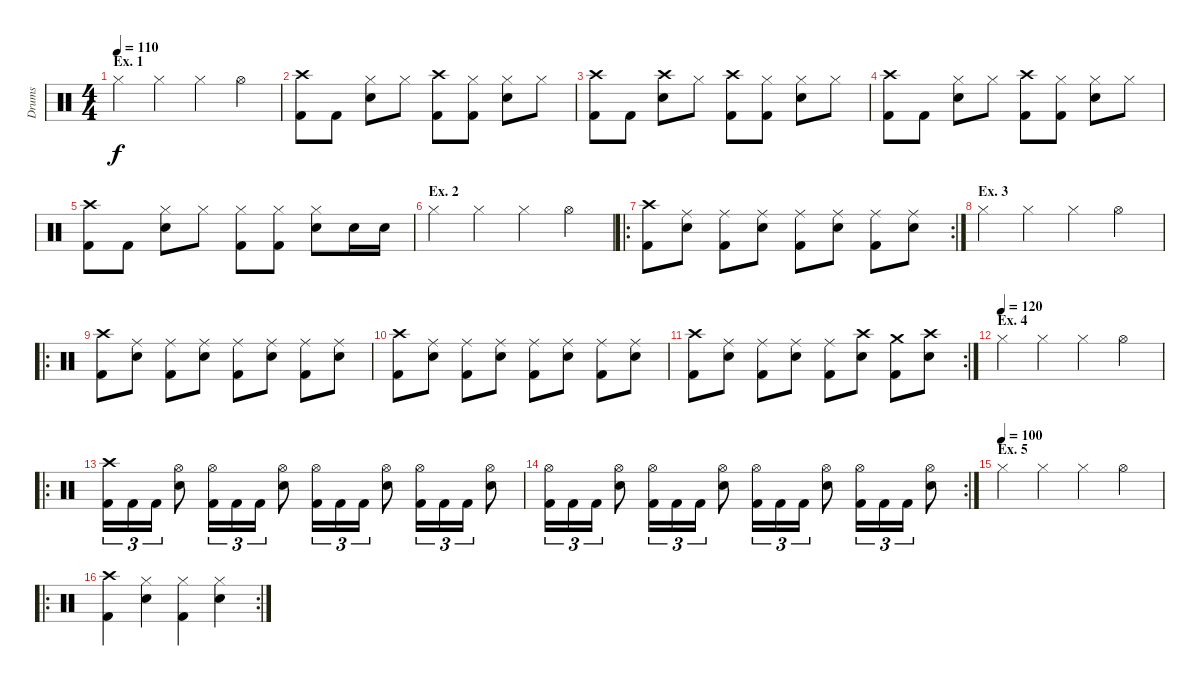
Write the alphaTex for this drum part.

\track ("Drums" "Drums") {instrument percussion}
\staff {score}
\articulation defaults
\ts (4 4)
\section ("" "Ex. 1")
\tempo 110
\clef neutral
\ks c "Hi-Hat (closed)".4{dy f} "Hi-Hat (closed)".4 "Hi-Hat (closed)".4 "Hi-Hat (open)".4
|
("Crash high (hit)" "Kick (hit) 2").8 "Kick (hit) 2".8 ("Hi-Hat (closed)" "Snare (hit) 2").8 "Hi-Hat (closed)".8 ("Crash high (hit)" "Kick (hit) 2").8 ("Hi-Hat (closed)" "Kick (hit) 2").8 ("Hi-Hat (closed)" "Snare (hit) 2").8 "Hi-Hat (closed)".8 |
("Crash high (hit)" "Kick (hit) 2").8 "Kick (hit) 2".8 ("Crash high (hit)" "Snare (hit) 2").8 "Hi-Hat (closed)".8 ("Crash high (hit)" "Kick (hit) 2").8 ("Hi-Hat (closed)" "Kick (hit) 2").8 ("Hi-Hat (closed)" "Snare (hit) 2").8 "Hi-Hat (closed)".8 |
("Crash high (hit)" "Kick (hit) 2").8 "Kick (hit) 2".8 ("Hi-Hat (closed)" "Snare (hit) 2").8 "Hi-Hat (closed)".8 ("Crash high (hit)" "Kick (hit) 2").8 ("Hi-Hat (closed)" "Kick (hit) 2").8 ("Hi-Hat (closed)" "Snare (hit) 2").8 "Hi-Hat (closed)".8 |
("Crash high (hit)" "Kick (hit) 2").8 "Kick (hit) 2".8 ("Hi-Hat (closed)" "Snare (hit) 2").8 "Hi-Hat (closed)".8 ("Hi-Hat (closed)" "Kick (hit) 2").8 ("Hi-Hat (closed)" "Kick (hit) 2").8 ("Hi-Hat (closed)" "Snare (hit) 2").8 "Snare (hit) 2".16 "Snare (hit) 2".16 |
\section ("" "Ex. 2")
"Hi-Hat (closed)".4 "Hi-Hat (closed)".4 "Hi-Hat (closed)".4 "Hi-Hat (open)".4 |
\ro
\rc 2
("Crash high (hit)" "Kick (hit) 2").8 ("Ride (middle)" "Snare (hit) 2").8 ("Ride (middle)" "Kick (hit) 2").8 ("Ride (middle)" "Snare (hit) 2").8 ("Ride (middle)" "Kick (hit) 2").8 ("Ride (middle)" "Snare (hit) 2").8 ("Ride (middle)" "Kick (hit) 2").8 ("Ride (middle)" "Snare (hit) 2").8 |
\section ("" "Ex. 3")
"Hi-Hat (closed)".4 "Hi-Hat (closed)".4 "Hi-Hat (closed)".4 "Hi-Hat (open)".4 |
\ro
("Crash high (hit)" "Kick (hit) 2").8 ("Ride (middle)" "Snare (hit) 2").8 ("Ride (middle)" "Kick (hit) 2").8 ("Ride (middle)" "Snare (hit) 2").8 ("Ride (middle)" "Kick (hit) 2").8 ("Ride (middle)" "Snare (hit) 2").8 ("Ride (middle)" "Kick (hit) 2").8 ("Ride (middle)" "Snare (hit) 2").8 |
("Crash high (hit)" "Kick (hit) 2").8 ("Ride (middle)" "Snare (hit) 2").8 ("Ride (middle)" "Kick (hit) 2").8 ("Ride (middle)" "Snare (hit) 2").8 ("Ride (middle)" "Kick (hit) 2").8 ("Ride (middle)" "Snare (hit) 2").8 ("Ride (middle)" "Kick (hit) 2").8 ("Ride (middle)" "Snare (hit) 2").8 |
\rc 2
("Crash high (hit)" "Kick (hit) 2").8 ("Ride (middle)" "Snare (hit) 2").8 ("Ride (middle)" "Kick (hit) 2").8 ("Ride (middle)" "Snare (hit) 2").8 ("Ride (middle)" "Kick (hit) 2").8 ("Crash high (hit)" "Snare (hit) 2").8 ("Crash medium (hit)" "Kick (hit) 2").8 ("Crash high (hit)" "Snare (hit) 2").8 |
\section ("" "Ex. 4")
\tempo (120)
"Hi-Hat (closed)".4 "Hi-Hat (closed)".4 "Hi-Hat (closed)".4 "Hi-Hat (open)".4 |
\ro
("Crash high (hit)" "Kick (hit) 2").16{tu (3 2)} "Kick (hit) 2".16{tu (3 2)} "Kick (hit) 2".16{tu (3 2)} ("Hi-Hat (open)" "Snare (hit) 2").8 ("Hi-Hat (open)" "Kick (hit) 2").16{tu (3 2)} "Kick (hit) 2".16{tu (3 2)} "Kick (hit) 2".16{tu (3 2)} ("Hi-Hat (open)" "Snare (hit) 2").8 ("Hi-Hat (open)" "Kick (hit) 2").16{tu (3 2)} "Kick (hit) 2".16{tu (3 2)} "Kick (hit) 2".16{tu (3 2)} ("Hi-Hat (open)" "Snare (hit) 2").8 ("Hi-Hat (open)" "Kick (hit) 2").16{tu (3 2)} "Kick (hit) 2".16{tu (3 2)} "Kick (hit) 2".16{tu (3 2)} ("Hi-Hat (open)" "Snare (hit) 2").8 |
\rc 2
("Hi-Hat (open)" "Kick (hit) 2").16{tu (3 2)} "Kick (hit) 2".16{tu (3 2)} "Kick (hit) 2".16{tu (3 2)} ("Hi-Hat (open)" "Snare (hit) 2").8 ("Hi-Hat (open)" "Kick (hit) 2").16{tu (3 2)} "Kick (hit) 2".16{tu (3 2)} "Kick (hit) 2".16{tu (3 2)} ("Hi-Hat (open)" "Snare (hit) 2").8 ("Hi-Hat (open)" "Kick (hit) 2").16{tu (3 2)} "Kick (hit) 2".16{tu (3 2)} "Kick (hit) 2".16{tu (3 2)} ("Hi-Hat (open)" "Snare (hit) 2").8 ("Hi-Hat (open)" "Kick (hit) 2").16{tu (3 2)} "Kick (hit) 2".16{tu (3 2)} "Kick (hit) 2".16{tu (3 2)} ("Hi-Hat (open)" "Snare (hit) 2").8 |
\section ("" "Ex. 5")
\tempo (100)
"Hi-Hat (closed)".4 "Hi-Hat (closed)".4 "Hi-Hat (closed)".4 "Hi-Hat (open)".4 |
\ro
\rc 2
("Crash high (hit)" "Kick (hit) 2").4 ("Hi-Hat (closed)" "Snare (hit) 2").4 ("Hi-Hat (closed)" "Kick (hit) 2").4 ("Hi-Hat (closed)" "Snare (hit) 2").4
